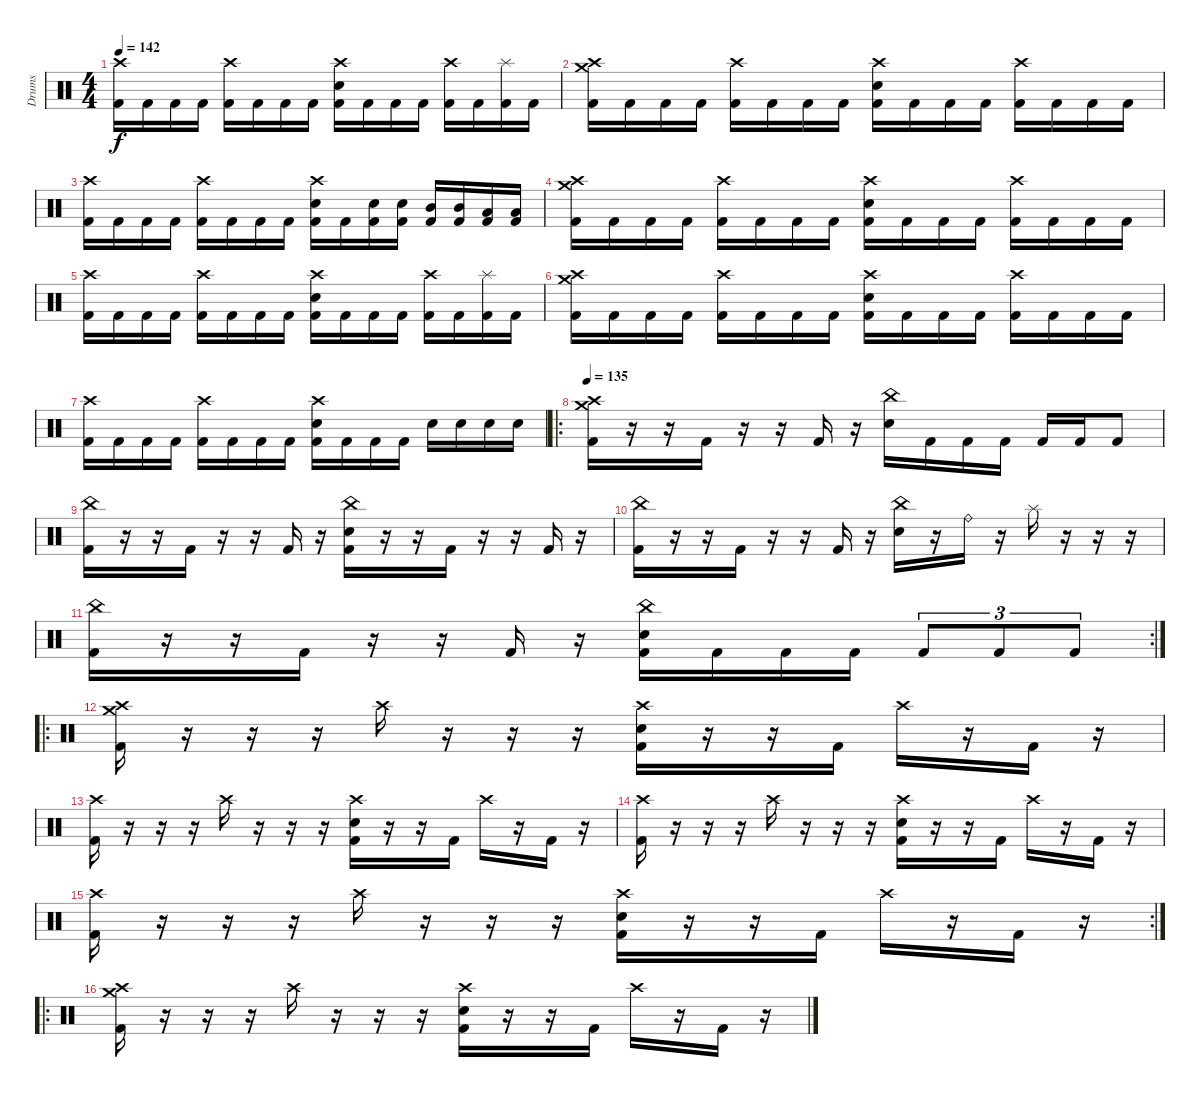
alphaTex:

\track ("Drums" "Drums") {instrument percussion}
\staff {score}
\articulation defaults
\ts (4 4)
\tempo 142
\clef neutral
\ks c
("Crash high (hit)" "Kick (hit) 2").16{dy f} "Kick (hit) 2".16 "Kick (hit) 2".16 "Kick (hit) 2".16 ("Crash high (hit)" "Kick (hit) 2").16 "Kick (hit) 2".16 "Kick (hit) 2".16 "Kick (hit) 2".16 ("Crash high (hit)" "Electric Snare (hit)" "Kick (hit) 2").16 "Kick (hit) 2".16 "Kick (hit) 2".16 "Kick (hit) 2".16 ("Crash high (hit)" "Kick (hit) 2").16 "Kick (hit) 2".16 ("Splash (hit)" "Kick (hit) 2").16 "Kick (hit) 2".16 |
("Crash high (hit)" "Crash medium (hit)" "Kick (hit) 2").16 "Kick (hit) 2".16 "Kick (hit) 2".16 "Kick (hit) 2".16 ("Crash high (hit)" "Kick (hit) 2").16 "Kick (hit) 2".16 "Kick (hit) 2".16 "Kick (hit) 2".16 ("Crash high (hit)" "Electric Snare (hit)" "Kick (hit) 2").16 "Kick (hit) 2".16 "Kick (hit) 2".16 "Kick (hit) 2".16 ("Crash high (hit)" "Kick (hit) 2").16 "Kick (hit) 2".16 "Kick (hit) 2".16 "Kick (hit) 2".16 |
("Crash high (hit)" "Kick (hit) 2").16 "Kick (hit) 2".16 "Kick (hit) 2".16 "Kick (hit) 2".16 ("Crash high (hit)" "Kick (hit) 2").16 "Kick (hit) 2".16 "Kick (hit) 2".16 "Kick (hit) 2".16 ("Crash high (hit)" "Electric Snare (hit)" "Kick (hit) 2").16 "Kick (hit) 2".16 ("Electric Snare (hit)" "Kick (hit) 2").16 ("Electric Snare (hit)" "Kick (hit) 2").16 ("Mid Tom (hit)" "Kick (hit) 2").16 ("Mid Tom (hit)" "Kick (hit) 2").16 ("Low Tom (hit)" "Kick (hit) 2").16 ("Low Tom (hit)" "Kick (hit) 2").16 |
("Crash high (hit)" "Crash medium (hit)" "Kick (hit) 2").16 "Kick (hit) 2".16 "Kick (hit) 2".16 "Kick (hit) 2".16 ("Crash high (hit)" "Kick (hit) 2").16 "Kick (hit) 2".16 "Kick (hit) 2".16 "Kick (hit) 2".16 ("Crash high (hit)" "Electric Snare (hit)" "Kick (hit) 2").16 "Kick (hit) 2".16 "Kick (hit) 2".16 "Kick (hit) 2".16 ("Crash high (hit)" "Kick (hit) 2").16 "Kick (hit) 2".16 "Kick (hit) 2".16 "Kick (hit) 2".16 |
("Crash high (hit)" "Kick (hit) 2").16 "Kick (hit) 2".16 "Kick (hit) 2".16 "Kick (hit) 2".16 ("Crash high (hit)" "Kick (hit) 2").16 "Kick (hit) 2".16 "Kick (hit) 2".16 "Kick (hit) 2".16 ("Crash high (hit)" "Electric Snare (hit)" "Kick (hit) 2").16 "Kick (hit) 2".16 "Kick (hit) 2".16 "Kick (hit) 2".16 ("Crash high (hit)" "Kick (hit) 2").16 "Kick (hit) 2".16 ("Splash (hit)" "Kick (hit) 2").16 "Kick (hit) 2".16 |
("Crash high (hit)" "Crash medium (hit)" "Kick (hit) 2").16 "Kick (hit) 2".16 "Kick (hit) 2".16 "Kick (hit) 2".16 ("Crash high (hit)" "Kick (hit) 2").16 "Kick (hit) 2".16 "Kick (hit) 2".16 "Kick (hit) 2".16 ("Crash high (hit)" "Electric Snare (hit)" "Kick (hit) 2").16 "Kick (hit) 2".16 "Kick (hit) 2".16 "Kick (hit) 2".16 ("Crash high (hit)" "Kick (hit) 2").16 "Kick (hit) 2".16 "Kick (hit) 2".16 "Kick (hit) 2".16 |
("Crash high (hit)" "Kick (hit) 2").16 "Kick (hit) 2".16 "Kick (hit) 2".16 "Kick (hit) 2".16 ("Crash high (hit)" "Kick (hit) 2").16 "Kick (hit) 2".16 "Kick (hit) 2".16 "Kick (hit) 2".16 ("Crash high (hit)" "Electric Snare (hit)" "Kick (hit) 2").16 "Kick (hit) 2".16 "Kick (hit) 2".16 "Kick (hit) 2".16 "Electric Snare (hit)".16 "Electric Snare (hit)".16 "Electric Snare (hit)".16 "Electric Snare (hit)".16 |
\ro
\tempo 135
("Crash medium (hit)" "Crash high (hit)" "Kick (hit) 2").16 r.16 r.16 "Kick (hit) 2".16 r.16 r.16 "Kick (hit) 2".16 r.16 ("China (hit)" "Electric Snare (hit)").16 "Kick (hit) 2".16 "Kick (hit) 2".16 "Kick (hit) 2".16 "Kick (hit) 2".16 "Kick (hit) 2".16 "Kick (hit) 2".8 |
("China (hit)" "Kick (hit) 2").16 r.16 r.16 "Kick (hit) 2".16 r.16 r.16 "Kick (hit) 2".16 r.16 ("China (hit)" "Electric Snare (hit)" "Kick (hit) 2").16 r.16 r.16 "Kick (hit) 2".16 r.16 r.16 "Kick (hit) 2".16 r.16 |
("China (hit)" "Kick (hit) 2").16 r.16 r.16 "Kick (hit) 2".16 r.16 r.16 "Kick (hit) 2".16 r.16 ("China (hit)" "Electric Snare (hit)").16 r.16 "Ride (bell)".16 r.16 "Splash (hit)".16 r.16 r.16 r.16 |
\rc 2
("China (hit)" "Kick (hit) 2").16 r.16 r.16 "Kick (hit) 2".16 r.16 r.16 "Kick (hit) 2".16 r.16 ("China (hit)" "Electric Snare (hit)" "Kick (hit) 2").16 "Kick (hit) 2".16 "Kick (hit) 2".16 "Kick (hit) 2".16 "Kick (hit) 2".8{tu (3 2)} "Kick (hit) 2".8{tu (3 2)} "Kick (hit) 2".8{tu (3 2)} |
\ro
("Crash medium (hit)" "Crash high (hit)" "Kick (hit) 2").16 r.16 r.16 r.16 "Crash high (hit)".16 r.16 r.16 r.16 ("Crash high (hit)" "Electric Snare (hit)" "Kick (hit) 2").16 r.16 r.16 "Kick (hit) 2".16 "Crash high (hit)".16 r.16 "Kick (hit) 2".16 r.16 |
("Crash high (hit)" "Kick (hit) 2").16 r.16 r.16 r.16 "Crash high (hit)".16 r.16 r.16 r.16 ("Crash high (hit)" "Electric Snare (hit)" "Kick (hit) 2").16 r.16 r.16 "Kick (hit) 2".16 "Crash high (hit)".16 r.16 "Kick (hit) 2".16 r.16 |
("Crash high (hit)" "Kick (hit) 2").16 r.16 r.16 r.16 "Crash high (hit)".16 r.16 r.16 r.16 ("Crash high (hit)" "Electric Snare (hit)" "Kick (hit) 2").16 r.16 r.16 "Kick (hit) 2".16 "Crash high (hit)".16 r.16 "Kick (hit) 2".16 r.16 |
\rc 2
("Crash high (hit)" "Kick (hit) 2").16 r.16 r.16 r.16 "Crash high (hit)".16 r.16 r.16 r.16 ("Crash high (hit)" "Electric Snare (hit)" "Kick (hit) 2").16 r.16 r.16 "Kick (hit) 2".16 "Crash high (hit)".16 r.16 "Kick (hit) 2".16 r.16 |
\ro
("Crash medium (hit)" "Crash high (hit)" "Kick (hit) 2").16 r.16 r.16 r.16 "Crash high (hit)".16 r.16 r.16 r.16 ("Crash high (hit)" "Electric Snare (hit)" "Kick (hit) 2").16 r.16 r.16 "Kick (hit) 2".16 "Crash high (hit)".16 r.16 "Kick (hit) 2".16 r.16
